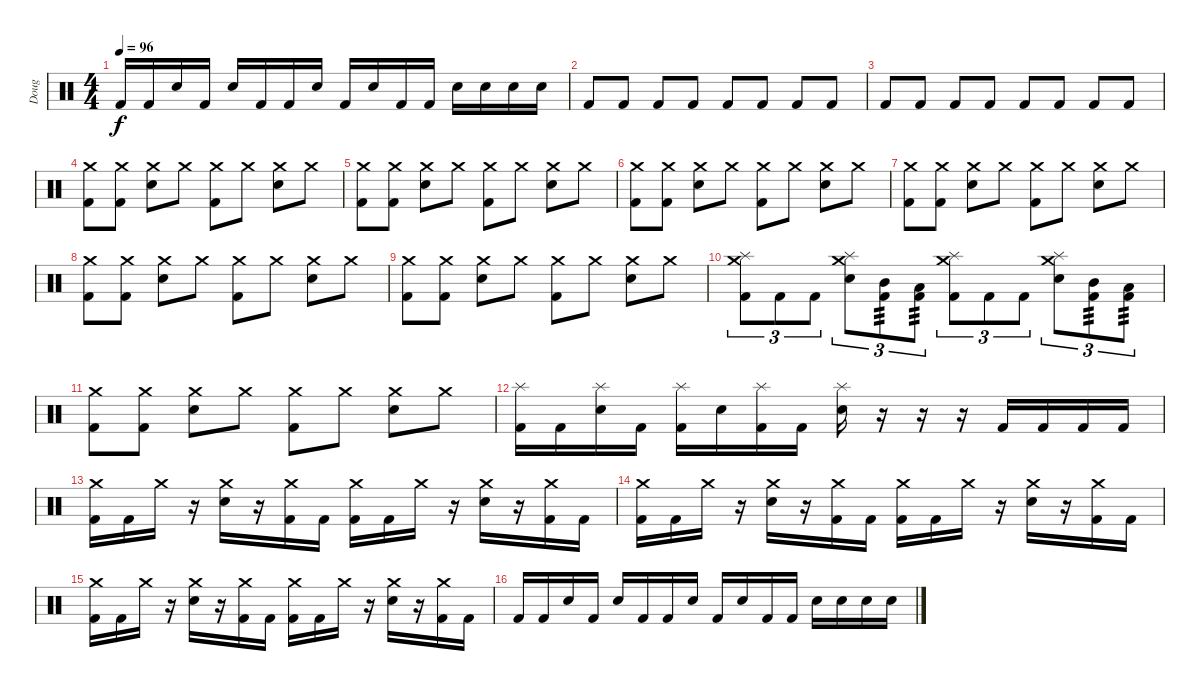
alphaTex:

\track ("Doug" "Doug") {instrument percussion}
\staff {score}
\articulation defaults
\ts (4 4)
\tempo 96
\clef neutral
\ks c "Kick (hit) 2".16{dy f} "Kick (hit) 2".16 "Electric Snare (hit)".16 "Kick (hit) 2".16 "Electric Snare (hit)".16 "Kick (hit) 2".16 "Kick (hit) 2".16 "Electric Snare (hit)".16 "Kick (hit) 2".16 "Electric Snare (hit)".16 "Kick (hit) 2".16 "Kick (hit) 2".16 "Electric Snare (hit)".16 "Electric Snare (hit)".16 "Electric Snare (hit)".16 "Electric Snare (hit)".16
|
"Kick (hit) 2".8 "Kick (hit) 2".8 "Kick (hit) 2".8 "Kick (hit) 2".8 "Kick (hit) 2".8 "Kick (hit) 2".8 "Kick (hit) 2".8 "Kick (hit) 2".8 |
"Kick (hit) 2".8 "Kick (hit) 2".8 "Kick (hit) 2".8 "Kick (hit) 2".8 "Kick (hit) 2".8 "Kick (hit) 2".8 "Kick (hit) 2".8 "Kick (hit) 2".8 |
("Kick (hit) 2" "Crash medium (hit)").8 ("Kick (hit) 2" "Crash medium (hit)").8 ("Electric Snare (hit)" "Crash medium (hit)").8 "Crash medium (hit)".8 ("Kick (hit) 2" "Crash medium (hit)").8 "Crash medium (hit)".8 ("Electric Snare (hit)" "Crash medium (hit)").8 "Crash medium (hit)".8 |
("Kick (hit) 2" "Crash medium (hit)").8 ("Kick (hit) 2" "Crash medium (hit)").8 ("Electric Snare (hit)" "Crash medium (hit)").8 "Crash medium (hit)".8 ("Kick (hit) 2" "Crash medium (hit)").8 "Crash medium (hit)".8 ("Electric Snare (hit)" "Crash medium (hit)").8 "Crash medium (hit)".8 |
("Kick (hit) 2" "Crash medium (hit)").8 ("Kick (hit) 2" "Crash medium (hit)").8 ("Electric Snare (hit)" "Crash medium (hit)").8 "Crash medium (hit)".8 ("Kick (hit) 2" "Crash medium (hit)").8 "Crash medium (hit)".8 ("Electric Snare (hit)" "Crash medium (hit)").8 "Crash medium (hit)".8 |
("Kick (hit) 2" "Crash medium (hit)").8 ("Kick (hit) 2" "Crash medium (hit)").8 ("Electric Snare (hit)" "Crash medium (hit)").8 "Crash medium (hit)".8 ("Kick (hit) 2" "Crash medium (hit)").8 "Crash medium (hit)".8 ("Electric Snare (hit)" "Crash medium (hit)").8 "Crash medium (hit)".8 |
("Kick (hit) 2" "Crash medium (hit)").8 ("Kick (hit) 2" "Crash medium (hit)").8 ("Electric Snare (hit)" "Crash medium (hit)").8 "Crash medium (hit)".8 ("Kick (hit) 2" "Crash medium (hit)").8 "Crash medium (hit)".8 ("Electric Snare (hit)" "Crash medium (hit)").8 "Crash medium (hit)".8 |
("Kick (hit) 2" "Crash medium (hit)").8 ("Kick (hit) 2" "Crash medium (hit)").8 ("Electric Snare (hit)" "Crash medium (hit)").8 "Crash medium (hit)".8 ("Kick (hit) 2" "Crash medium (hit)").8 "Crash medium (hit)".8 ("Electric Snare (hit)" "Crash medium (hit)").8 "Crash medium (hit)".8 |
("Kick (hit) 2" "Splash (hit)" "Crash medium (hit)").8{tu (3 2)} "Kick (hit) 2".8{tu (3 2)} "Kick (hit) 2".8{tu (3 2)} ("Electric Snare (hit)" "Splash (hit)" "Crash medium (hit)").8{tu (3 2)} ("Kick (hit) 2" "Mid Tom (hit)").8{tu (3 2) tp 3} ("Kick (hit) 2" "Low Tom (hit)").8{tu (3 2) tp 3} ("Kick (hit) 2" "Splash (hit)" "Crash medium (hit)").8{tu (3 2)} "Kick (hit) 2".8{tu (3 2)} "Kick (hit) 2".8{tu (3 2)} ("Electric Snare (hit)" "Splash (hit)" "Crash medium (hit)").8{tu (3 2)} ("Kick (hit) 2" "Mid Tom (hit)").8{tu (3 2) tp 3} ("Kick (hit) 2" "Low Tom (hit)").8{tu (3 2) tp 3} |
("Kick (hit) 2" "Crash medium (hit)").8 ("Kick (hit) 2" "Crash medium (hit)").8 ("Electric Snare (hit)" "Crash medium (hit)").8 "Crash medium (hit)".8 ("Kick (hit) 2" "Crash medium (hit)").8 "Crash medium (hit)".8 ("Electric Snare (hit)" "Crash medium (hit)").8 "Crash medium (hit)".8 |
("Kick (hit) 2" "Splash (hit)").16 "Kick (hit) 2".16 ("Electric Snare (hit)" "Splash (hit)").16 "Kick (hit) 2".16 ("Kick (hit) 2" "Splash (hit)").16 "Electric Snare (hit)".16 ("Kick (hit) 2" "Splash (hit)").16 "Kick (hit) 2".16 ("Electric Snare (hit)" "Splash (hit)").16 r.16 r.16 r.16 "Kick (hit) 2".16 "Kick (hit) 2".16 "Kick (hit) 2".16 "Kick (hit) 2".16 |
("Kick (hit) 2" "Crash medium (hit)").16 "Kick (hit) 2".16 "Crash medium (hit)".16 r.16 ("Electric Snare (hit)" "Crash medium (hit)").16 r.16 ("Kick (hit) 2" "Crash medium (hit)").16 "Kick (hit) 2".16 ("Kick (hit) 2" "Crash medium (hit)").16 "Kick (hit) 2".16 "Crash medium (hit)".16 r.16 ("Electric Snare (hit)" "Crash medium (hit)").16 r.16 ("Kick (hit) 2" "Crash medium (hit)").16 "Kick (hit) 2".16 |
("Kick (hit) 2" "Crash medium (hit)").16 "Kick (hit) 2".16 "Crash medium (hit)".16 r.16 ("Electric Snare (hit)" "Crash medium (hit)").16 r.16 ("Kick (hit) 2" "Crash medium (hit)").16 "Kick (hit) 2".16 ("Kick (hit) 2" "Crash medium (hit)").16 "Kick (hit) 2".16 "Crash medium (hit)".16 r.16 ("Electric Snare (hit)" "Crash medium (hit)").16 r.16 ("Kick (hit) 2" "Crash medium (hit)").16 "Kick (hit) 2".16 |
("Kick (hit) 2" "Crash medium (hit)").16 "Kick (hit) 2".16 "Crash medium (hit)".16 r.16 ("Electric Snare (hit)" "Crash medium (hit)").16 r.16 ("Kick (hit) 2" "Crash medium (hit)").16 "Kick (hit) 2".16 ("Kick (hit) 2" "Crash medium (hit)").16 "Kick (hit) 2".16 "Crash medium (hit)".16 r.16 ("Electric Snare (hit)" "Crash medium (hit)").16 r.16 ("Kick (hit) 2" "Crash medium (hit)").16 "Kick (hit) 2".16 |
"Kick (hit) 2".16 "Kick (hit) 2".16 "Electric Snare (hit)".16 "Kick (hit) 2".16 "Electric Snare (hit)".16 "Kick (hit) 2".16 "Kick (hit) 2".16 "Electric Snare (hit)".16 "Kick (hit) 2".16 "Electric Snare (hit)".16 "Kick (hit) 2".16 "Kick (hit) 2".16 "Electric Snare (hit)".16 "Electric Snare (hit)".16 "Electric Snare (hit)".16 "Electric Snare (hit)".16
